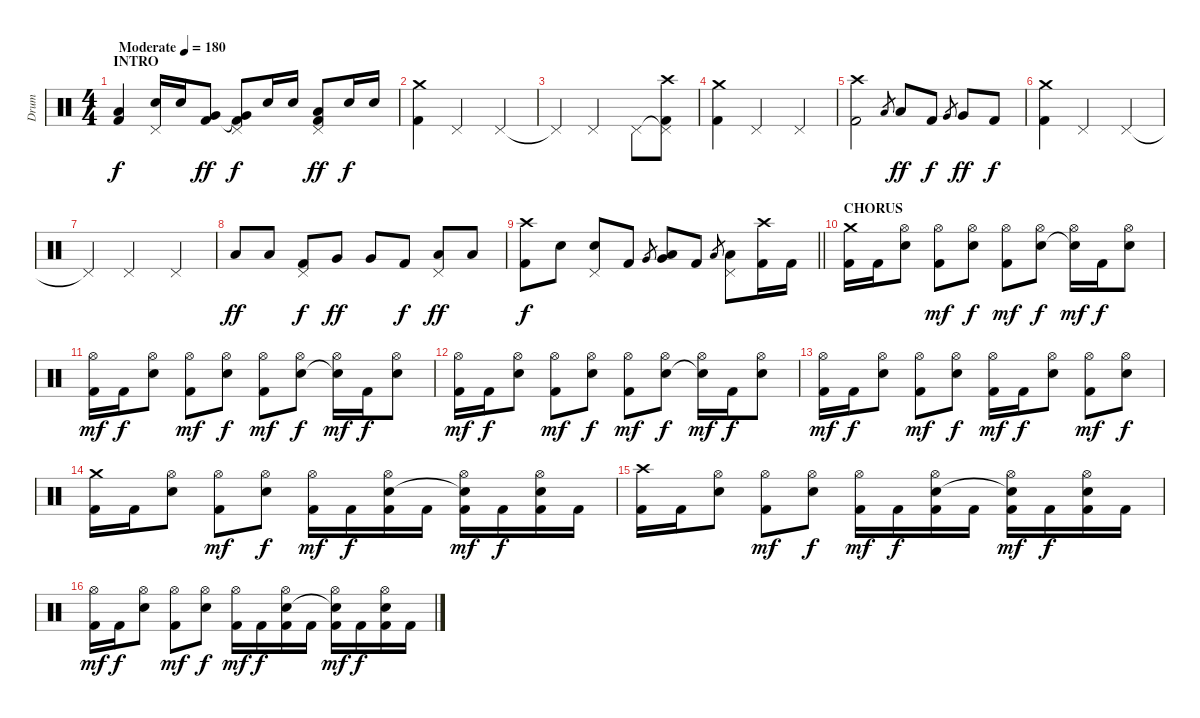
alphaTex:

\track ("Drum" "Drum") {instrument percussion}
\staff {score}
\articulation defaults
\ts (4 4)
\section ("" "INTRO")
\tempo (180 "Moderate")
\clef neutral
\ks c
("Low Tom (hit)" "Kick (hit) 2").4{dy f} ("Pedal Hi-Hat (hit)" "Electric Snare (hit)").16 "Electric Snare (hit)".16 ("Very Low Tom (hit)" "Kick (hit) 2").8{dy ff} ("Pedal Hi-Hat (hit)" "Very Low Tom (hit)"{t} "Kick (hit) 2").8{dy f} "Electric Snare (hit)".16 "Electric Snare (hit)".16 ("Pedal Hi-Hat (hit)" "Low Floor Tom (hit)" "Kick (hit) 2").8{dy ff} "Electric Snare (hit)".16{dy f} "Electric Snare (hit)".16 |
("Crash medium (hit)" "Kick (hit) 2").4 "Pedal Hi-Hat (hit)".2 "Pedal Hi-Hat (hit)".4 |
"Pedal Hi-Hat (hit)"{t}.4 "Pedal Hi-Hat (hit)".2 "Pedal Hi-Hat (hit)".8 ("Pedal Hi-Hat (hit)"{t} "Crash high (hit)" "Kick (hit) 2").8 |
("Crash medium (hit)" "Kick (hit) 2").4 "Pedal Hi-Hat (hit)".2 "Pedal Hi-Hat (hit)".4 |
("Crash high (hit)" "Kick (hit) 2").2 "Low Tom (hit)".8{gr} "Low Tom (hit)".8{dy ff} "Kick (hit) 2".8{dy f} "Very Low Tom (hit)".8{gr} "Very Low Tom (hit)".8{dy ff} "Kick (hit) 2".8{dy f} |
("Crash medium (hit)" "Kick (hit) 2").4 "Pedal Hi-Hat (hit)".2 "Pedal Hi-Hat (hit)".4 |
"Pedal Hi-Hat (hit)"{t}.4 "Pedal Hi-Hat (hit)".2 "Pedal Hi-Hat (hit)".4 |
"Low Tom (hit)".8{dy ff} "Low Tom (hit)".8 ("Pedal Hi-Hat (hit)" "Kick (hit) 2").8{dy f} "Very Low Tom (hit)".8{dy ff} "Very Low Tom (hit)".8 "Kick (hit) 2".8{dy f} ("Pedal Hi-Hat (hit)" "Low Floor Tom (hit)").8{dy ff} "Low Floor Tom (hit)".8 |
\barLineRight lightlight
("Crash high (hit)" "Kick (hit) 2").8{dy f} "Electric Snare (hit)".8 ("Pedal Hi-Hat (hit)" "Electric Snare (hit)").8 "Kick (hit) 2".8 "Very Low Tom (hit)".8{gr} ("Low Floor Tom (hit)" "Very Low Tom (hit)").8 "Kick (hit) 2".8 "Low Floor Tom (hit)".8{gr} ("Pedal Hi-Hat (hit)" "Low Floor Tom (hit)").8 ("Crash high (hit)" "Kick (hit) 2").16 "Kick (hit) 2".16 |
\section ("" "CHORUS")
("Crash medium (hit)" "Kick (hit) 2").16 "Kick (hit) 2".16 ("Hi-Hat (open)" "Electric Snare (hit)").8 ("Hi-Hat (open)" "Kick (hit) 2").8{dy mf} ("Hi-Hat (open)" "Electric Snare (hit)").8{dy f} ("Hi-Hat (open)" "Kick (hit) 2").8{dy mf} ("Hi-Hat (open)" "Electric Snare (hit)").8{dy f} ("Hi-Hat (open)" "Electric Snare (hit)"{t}).16{dy mf} "Kick (hit) 2".16{dy f} ("Hi-Hat (open)" "Electric Snare (hit)").8 |
("Hi-Hat (open)" "Kick (hit) 2").16{dy mf} "Kick (hit) 2".16{dy f} ("Hi-Hat (open)" "Electric Snare (hit)").8 ("Hi-Hat (open)" "Kick (hit) 2").8{dy mf} ("Hi-Hat (open)" "Electric Snare (hit)").8{dy f} ("Hi-Hat (open)" "Kick (hit) 2").8{dy mf} ("Hi-Hat (open)" "Electric Snare (hit)").8{dy f} ("Hi-Hat (open)" "Electric Snare (hit)"{t}).16{dy mf} "Kick (hit) 2".16{dy f} ("Hi-Hat (open)" "Electric Snare (hit)").8 |
("Hi-Hat (open)" "Kick (hit) 2").16{dy mf} "Kick (hit) 2".16{dy f} ("Hi-Hat (open)" "Electric Snare (hit)").8 ("Hi-Hat (open)" "Kick (hit) 2").8{dy mf} ("Hi-Hat (open)" "Electric Snare (hit)").8{dy f} ("Hi-Hat (open)" "Kick (hit) 2").8{dy mf} ("Hi-Hat (open)" "Electric Snare (hit)").8{dy f} ("Hi-Hat (open)" "Electric Snare (hit)"{t}).16{dy mf} "Kick (hit) 2".16{dy f} ("Hi-Hat (open)" "Electric Snare (hit)").8 |
("Hi-Hat (open)" "Kick (hit) 2").16{dy mf} "Kick (hit) 2".16{dy f} ("Hi-Hat (open)" "Electric Snare (hit)").8 ("Hi-Hat (open)" "Kick (hit) 2").8{dy mf} ("Hi-Hat (open)" "Electric Snare (hit)").8{dy f} ("Hi-Hat (open)" "Kick (hit) 2").16{dy mf} "Kick (hit) 2".16{dy f} ("Hi-Hat (open)" "Electric Snare (hit)").8 ("Hi-Hat (open)" "Kick (hit) 2").8{dy mf} ("Hi-Hat (open)" "Electric Snare (hit)").8{dy f} |
("Crash medium (hit)" "Kick (hit) 2").16 "Kick (hit) 2".16 ("Hi-Hat (open)" "Electric Snare (hit)").8 ("Hi-Hat (open)" "Kick (hit) 2").8{dy mf} ("Hi-Hat (open)" "Electric Snare (hit)").8{dy f} ("Hi-Hat (open)" "Kick (hit) 2").16{dy mf} "Kick (hit) 2".16{dy f} ("Hi-Hat (open)" "Electric Snare (hit)" "Kick (hit) 2").16 "Kick (hit) 2".16 ("Hi-Hat (open)" "Electric Snare (hit)"{t} "Kick (hit) 2").16{dy mf} "Kick (hit) 2".16{dy f} ("Hi-Hat (open)" "Electric Snare (hit)" "Kick (hit) 2").16 "Kick (hit) 2".16 |
("Crash high (hit)" "Kick (hit) 2").16 "Kick (hit) 2".16 ("Hi-Hat (open)" "Electric Snare (hit)").8 ("Hi-Hat (open)" "Kick (hit) 2").8{dy mf} ("Hi-Hat (open)" "Electric Snare (hit)").8{dy f} ("Hi-Hat (open)" "Kick (hit) 2").16{dy mf} "Kick (hit) 2".16{dy f} ("Hi-Hat (open)" "Electric Snare (hit)" "Kick (hit) 2").16 "Kick (hit) 2".16 ("Hi-Hat (open)" "Electric Snare (hit)"{t} "Kick (hit) 2").16{dy mf} "Kick (hit) 2".16{dy f} ("Hi-Hat (open)" "Electric Snare (hit)" "Kick (hit) 2").16 "Kick (hit) 2".16 |
("Hi-Hat (open)" "Kick (hit) 2").16{dy mf} "Kick (hit) 2".16{dy f} ("Hi-Hat (open)" "Electric Snare (hit)").8 ("Hi-Hat (open)" "Kick (hit) 2").8{dy mf} ("Hi-Hat (open)" "Electric Snare (hit)").8{dy f} ("Hi-Hat (open)" "Kick (hit) 2").16{dy mf} "Kick (hit) 2".16{dy f} ("Hi-Hat (open)" "Electric Snare (hit)" "Kick (hit) 2").16 "Kick (hit) 2".16 ("Hi-Hat (open)" "Electric Snare (hit)"{t} "Kick (hit) 2").16{dy mf} "Kick (hit) 2".16{dy f} ("Hi-Hat (open)" "Electric Snare (hit)" "Kick (hit) 2").16 "Kick (hit) 2".16
